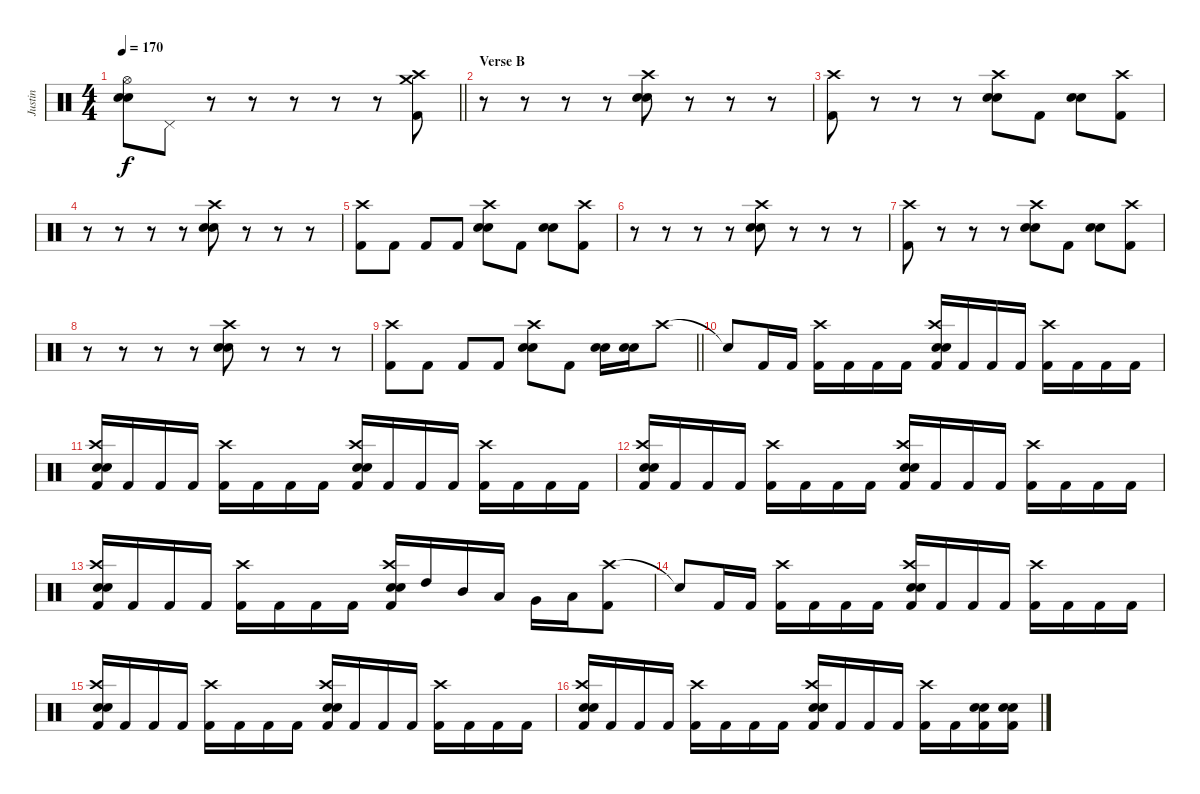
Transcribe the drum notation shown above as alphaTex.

\track ("Justin" "Justin") {instrument percussion}
\staff {score}
\articulation defaults
\ts (4 4)
\tempo 170
\clef neutral
\barLineRight lightlight
\ks c
("Hi-Hat (open)" "Electric Snare (hit)" "Snare (hit) 2").8{dy f} "Pedal Hi-Hat (hit)".8 r.8 r.8 r.8 r.8 r.8 ("Crash medium (hit)" "Crash high (hit)" "Kick (hit) 2").8 |
\section ("" "Verse B")
r.8 r.8 r.8 r.8 ("Crash high (hit)" "Electric Snare (hit)" "Snare (hit) 2").8 r.8 r.8 r.8 |
("Crash high (hit)" "Kick (hit) 2").8 r.8 r.8 r.8 ("Crash high (hit)" "Electric Snare (hit)" "Snare (hit) 2").8 "Kick (hit) 2".8 ("Electric Snare (hit)" "Snare (hit) 2").8 ("Crash high (hit)" "Kick (hit) 2").8 |
r.8 r.8 r.8 r.8 ("Crash high (hit)" "Electric Snare (hit)" "Snare (hit) 2").8 r.8 r.8 r.8 |
("Crash high (hit)" "Kick (hit) 2").8 "Kick (hit) 2".8 "Kick (hit) 2".8 "Kick (hit) 2".8 ("Crash high (hit)" "Electric Snare (hit)" "Snare (hit) 2").8 "Kick (hit) 2".8 ("Electric Snare (hit)" "Snare (hit) 2").8 ("Crash high (hit)" "Kick (hit) 2").8 |
r.8 r.8 r.8 r.8 ("Crash high (hit)" "Electric Snare (hit)" "Snare (hit) 2").8 r.8 r.8 r.8 |
("Crash high (hit)" "Kick (hit) 2").8 r.8 r.8 r.8 ("Crash high (hit)" "Electric Snare (hit)" "Snare (hit) 2").8 "Kick (hit) 2".8 ("Electric Snare (hit)" "Snare (hit) 2").8 ("Crash high (hit)" "Kick (hit) 2").8 |
r.8 r.8 r.8 r.8 ("Crash high (hit)" "Electric Snare (hit)" "Snare (hit) 2").8 r.8 r.8 r.8 |
\barLineRight lightlight
("Crash high (hit)" "Kick (hit) 2").8 "Kick (hit) 2".8 "Kick (hit) 2".8 "Kick (hit) 2".8 ("Crash high (hit)" "Electric Snare (hit)" "Snare (hit) 2").8 "Kick (hit) 2".8 ("Electric Snare (hit)" "Snare (hit) 2").16 ("Electric Snare (hit)" "Snare (hit) 2").16 "Crash high (hit)".8 |
"Snare (hit)"{t}.8 "Kick (hit) 2".16 "Kick (hit) 2".16 ("Crash high (hit)" "Kick (hit) 2").16 "Kick (hit) 2".16 "Kick (hit) 2".16 "Kick (hit) 2".16 ("Crash high (hit)" "Electric Snare (hit)" "Snare (hit) 2" "Kick (hit) 2").16 "Kick (hit) 2".16 "Kick (hit) 2".16 "Kick (hit) 2".16 ("Crash high (hit)" "Kick (hit) 2").16 "Kick (hit) 2".16 "Kick (hit) 2".16 "Kick (hit) 2".16 |
("Crash high (hit)" "Electric Snare (hit)" "Snare (hit) 2" "Kick (hit) 2").16 "Kick (hit) 2".16 "Kick (hit) 2".16 "Kick (hit) 2".16 ("Crash high (hit)" "Kick (hit) 2").16 "Kick (hit) 2".16 "Kick (hit) 2".16 "Kick (hit) 2".16 ("Crash high (hit)" "Electric Snare (hit)" "Snare (hit) 2" "Kick (hit) 2").16 "Kick (hit) 2".16 "Kick (hit) 2".16 "Kick (hit) 2".16 ("Crash high (hit)" "Kick (hit) 2").16 "Kick (hit) 2".16 "Kick (hit) 2".16 "Kick (hit) 2".16 |
("Crash high (hit)" "Electric Snare (hit)" "Snare (hit) 2" "Kick (hit) 2").16 "Kick (hit) 2".16 "Kick (hit) 2".16 "Kick (hit) 2".16 ("Crash high (hit)" "Kick (hit) 2").16 "Kick (hit) 2".16 "Kick (hit) 2".16 "Kick (hit) 2".16 ("Crash high (hit)" "Electric Snare (hit)" "Snare (hit) 2" "Kick (hit) 2").16 "Kick (hit) 2".16 "Kick (hit) 2".16 "Kick (hit) 2".16 ("Crash high (hit)" "Kick (hit) 2").16 "Kick (hit) 2".16 "Kick (hit) 2".16 "Kick (hit) 2".16 |
("Crash high (hit)" "Electric Snare (hit)" "Snare (hit) 2" "Kick (hit) 2").16 "Kick (hit) 2".16 "Kick (hit) 2".16 "Kick (hit) 2".16 ("Crash high (hit)" "Kick (hit) 2").16 "Kick (hit) 2".16 "Kick (hit) 2".16 "Kick (hit) 2".16 ("Crash high (hit)" "Electric Snare (hit)" "Snare (hit) 2" "Kick (hit) 2").16 "High Tom (hit)".16 "Mid Tom (hit)".16 "Low Tom (hit)".16 "Very Low Tom (hit)".16 "Low Floor Tom (hit)".16 ("Crash high (hit)" "Kick (hit) 2").8 |
"Snare (hit)"{t}.8 "Kick (hit) 2".16 "Kick (hit) 2".16 ("Crash high (hit)" "Kick (hit) 2").16 "Kick (hit) 2".16 "Kick (hit) 2".16 "Kick (hit) 2".16 ("Crash high (hit)" "Electric Snare (hit)" "Snare (hit) 2" "Kick (hit) 2").16 "Kick (hit) 2".16 "Kick (hit) 2".16 "Kick (hit) 2".16 ("Crash high (hit)" "Kick (hit) 2").16 "Kick (hit) 2".16 "Kick (hit) 2".16 "Kick (hit) 2".16 |
("Crash high (hit)" "Electric Snare (hit)" "Snare (hit) 2" "Kick (hit) 2").16 "Kick (hit) 2".16 "Kick (hit) 2".16 "Kick (hit) 2".16 ("Crash high (hit)" "Kick (hit) 2").16 "Kick (hit) 2".16 "Kick (hit) 2".16 "Kick (hit) 2".16 ("Crash high (hit)" "Electric Snare (hit)" "Snare (hit) 2" "Kick (hit) 2").16 "Kick (hit) 2".16 "Kick (hit) 2".16 "Kick (hit) 2".16 ("Crash high (hit)" "Kick (hit) 2").16 "Kick (hit) 2".16 "Kick (hit) 2".16 "Kick (hit) 2".16 |
("Crash high (hit)" "Electric Snare (hit)" "Snare (hit) 2" "Kick (hit) 2").16 "Kick (hit) 2".16 "Kick (hit) 2".16 "Kick (hit) 2".16 ("Crash high (hit)" "Kick (hit) 2").16 "Kick (hit) 2".16 "Kick (hit) 2".16 "Kick (hit) 2".16 ("Crash high (hit)" "Electric Snare (hit)" "Snare (hit) 2" "Kick (hit) 2").16 "Kick (hit) 2".16 "Kick (hit) 2".16 "Kick (hit) 2".16 ("Crash high (hit)" "Kick (hit) 2").16 "Kick (hit) 2".16 ("Electric Snare (hit)" "Snare (hit) 2" "Kick (hit) 2").16 ("Electric Snare (hit)" "Snare (hit) 2" "Kick (hit) 2").16
